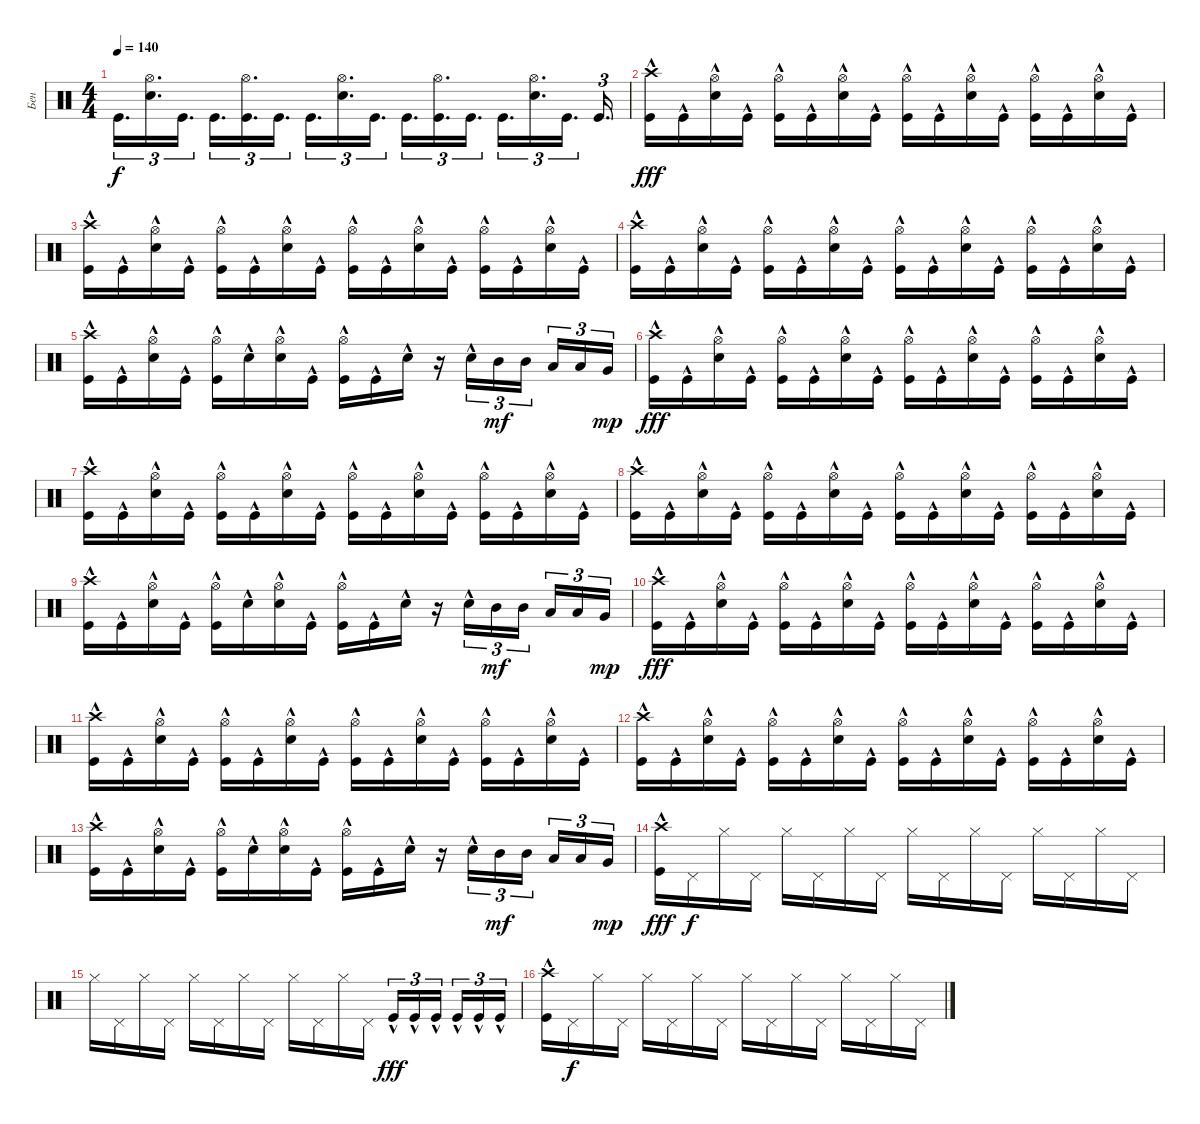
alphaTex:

\track ("Бен" "Бен") {instrument percussion}
\staff {score}
\articulation defaults
\ts (4 4)
\tempo 140
\clef neutral
\ks c "Kick (hit)".16{d tu (3 2) dy f}
("Snare (hit) 2" "Hi-Hat (open)").16{d tu (3 2)} "Kick (hit)".16{d tu (3 2)} "Kick (hit)".16{d tu (3 2)} ("Kick (hit)" "Hi-Hat (open)").16{d tu (3 2)} "Kick (hit)".16{d tu (3 2)} "Kick (hit)".16{d tu (3 2)} ("Snare (hit) 2" "Hi-Hat (open)").16{d tu (3 2)} "Kick (hit)".16{d tu (3 2)} "Kick (hit)".16{d tu (3 2)} ("Kick (hit)" "Hi-Hat (open)").16{d tu (3 2)} "Kick (hit)".16{d tu (3 2)} "Kick (hit)".16{d tu (3 2)} ("Snare (hit) 2" "Hi-Hat (open)").16{d tu (3 2)} "Kick (hit)".16{d tu (3 2)} "Kick (hit)".16{d tu (3 2)} |
("Kick (hit)"{hac} "Crash high (hit)"{hac}).16{dy fff} "Kick (hit)"{hac}.16 ("Snare (hit) 2"{hac} "Hi-Hat (open)").16 "Kick (hit)"{hac}.16 ("Kick (hit)"{hac} "Hi-Hat (open)").16 "Kick (hit)"{hac}.16 ("Snare (hit) 2"{hac} "Hi-Hat (open)").16 "Kick (hit)"{hac}.16 ("Kick (hit)"{hac} "Hi-Hat (open)").16 "Kick (hit)"{hac}.16 ("Snare (hit) 2"{hac} "Hi-Hat (open)").16 "Kick (hit)"{hac}.16 ("Kick (hit)"{hac} "Hi-Hat (open)").16 "Kick (hit)"{hac}.16 ("Snare (hit) 2"{hac} "Hi-Hat (open)").16 "Kick (hit)"{hac}.16 |
("Kick (hit)"{hac} "Crash high (hit)"{hac}).16 "Kick (hit)"{hac}.16 ("Snare (hit) 2"{hac} "Hi-Hat (open)").16 "Kick (hit)"{hac}.16 ("Kick (hit)"{hac} "Hi-Hat (open)").16 "Kick (hit)"{hac}.16 ("Snare (hit) 2"{hac} "Hi-Hat (open)").16 "Kick (hit)"{hac}.16 ("Kick (hit)"{hac} "Hi-Hat (open)").16 "Kick (hit)"{hac}.16 ("Snare (hit) 2"{hac} "Hi-Hat (open)").16 "Kick (hit)"{hac}.16 ("Kick (hit)"{hac} "Hi-Hat (open)").16 "Kick (hit)"{hac}.16 ("Snare (hit) 2"{hac} "Hi-Hat (open)").16 "Kick (hit)"{hac}.16 |
("Kick (hit)"{hac} "Crash high (hit)"{hac}).16 "Kick (hit)"{hac}.16 ("Snare (hit) 2"{hac} "Hi-Hat (open)").16 "Kick (hit)"{hac}.16 ("Kick (hit)"{hac} "Hi-Hat (open)").16 "Kick (hit)"{hac}.16 ("Snare (hit) 2"{hac} "Hi-Hat (open)").16 "Kick (hit)"{hac}.16 ("Kick (hit)"{hac} "Hi-Hat (open)").16 "Kick (hit)"{hac}.16 ("Snare (hit) 2"{hac} "Hi-Hat (open)").16 "Kick (hit)"{hac}.16 ("Kick (hit)"{hac} "Hi-Hat (open)").16 "Kick (hit)"{hac}.16 ("Snare (hit) 2"{hac} "Hi-Hat (open)").16 "Kick (hit)"{hac}.16 |
("Kick (hit)"{hac} "Crash high (hit)"{hac}).16 "Kick (hit)"{hac}.16 ("Snare (hit) 2"{hac} "Hi-Hat (open)").16 "Kick (hit)"{hac}.16 ("Kick (hit)"{hac} "Hi-Hat (open)").16 "Snare (hit)"{hac}.16 ("Snare (hit) 2"{hac} "Hi-Hat (open)").16 "Kick (hit)"{hac}.16 ("Kick (hit)"{hac} "Hi-Hat (open)").16 "Kick (hit)"{hac}.16 "Snare (hit) 2"{hac}.16 r.16 "Snare (hit) 2"{hac}.16{tu (3 2)} "Mid Tom (hit)".16{tu (3 2) dy mf} "Mid Tom (hit)".16{tu (3 2) beam splitsecondary} "Low Tom (hit)".16{tu (3 2)} "Low Tom (hit)".16{tu (3 2)} "Very Low Tom (hit)".16{tu (3 2) dy mp} |
("Kick (hit)"{hac} "Crash high (hit)"{hac}).16{dy fff} "Kick (hit)"{hac}.16 ("Snare (hit) 2"{hac} "Hi-Hat (open)").16 "Kick (hit)"{hac}.16 ("Kick (hit)"{hac} "Hi-Hat (open)").16 "Kick (hit)"{hac}.16 ("Snare (hit) 2"{hac} "Hi-Hat (open)").16 "Kick (hit)"{hac}.16 ("Kick (hit)"{hac} "Hi-Hat (open)").16 "Kick (hit)"{hac}.16 ("Snare (hit) 2"{hac} "Hi-Hat (open)").16 "Kick (hit)"{hac}.16 ("Kick (hit)"{hac} "Hi-Hat (open)").16 "Kick (hit)"{hac}.16 ("Snare (hit) 2"{hac} "Hi-Hat (open)").16 "Kick (hit)"{hac}.16 |
("Kick (hit)"{hac} "Crash high (hit)"{hac}).16 "Kick (hit)"{hac}.16 ("Snare (hit) 2"{hac} "Hi-Hat (open)").16 "Kick (hit)"{hac}.16 ("Kick (hit)"{hac} "Hi-Hat (open)").16 "Kick (hit)"{hac}.16 ("Snare (hit) 2"{hac} "Hi-Hat (open)").16 "Kick (hit)"{hac}.16 ("Kick (hit)"{hac} "Hi-Hat (open)").16 "Kick (hit)"{hac}.16 ("Snare (hit) 2"{hac} "Hi-Hat (open)").16 "Kick (hit)"{hac}.16 ("Kick (hit)"{hac} "Hi-Hat (open)").16 "Kick (hit)"{hac}.16 ("Snare (hit) 2"{hac} "Hi-Hat (open)").16 "Kick (hit)"{hac}.16 |
("Kick (hit)"{hac} "Crash high (hit)"{hac}).16 "Kick (hit)"{hac}.16 ("Snare (hit) 2"{hac} "Hi-Hat (open)").16 "Kick (hit)"{hac}.16 ("Kick (hit)"{hac} "Hi-Hat (open)").16 "Kick (hit)"{hac}.16 ("Snare (hit) 2"{hac} "Hi-Hat (open)").16 "Kick (hit)"{hac}.16 ("Kick (hit)"{hac} "Hi-Hat (open)").16 "Kick (hit)"{hac}.16 ("Snare (hit) 2"{hac} "Hi-Hat (open)").16 "Kick (hit)"{hac}.16 ("Kick (hit)"{hac} "Hi-Hat (open)").16 "Kick (hit)"{hac}.16 ("Snare (hit) 2"{hac} "Hi-Hat (open)").16 "Kick (hit)"{hac}.16 |
("Kick (hit)"{hac} "Crash high (hit)"{hac}).16 "Kick (hit)"{hac}.16 ("Snare (hit) 2"{hac} "Hi-Hat (open)").16 "Kick (hit)"{hac}.16 ("Kick (hit)"{hac} "Hi-Hat (open)").16 "Snare (hit)"{hac}.16 ("Snare (hit) 2"{hac} "Hi-Hat (open)").16 "Kick (hit)"{hac}.16 ("Kick (hit)"{hac} "Hi-Hat (open)").16 "Kick (hit)"{hac}.16 "Snare (hit) 2"{hac}.16 r.16 "Snare (hit) 2"{hac}.16{tu (3 2)} "Mid Tom (hit)".16{tu (3 2) dy mf} "Mid Tom (hit)".16{tu (3 2) beam splitsecondary} "Low Tom (hit)".16{tu (3 2)} "Low Tom (hit)".16{tu (3 2)} "Very Low Tom (hit)".16{tu (3 2) dy mp} |
("Kick (hit)"{hac} "Crash high (hit)"{hac}).16{dy fff} "Kick (hit)"{hac}.16 ("Snare (hit) 2"{hac} "Hi-Hat (open)").16 "Kick (hit)"{hac}.16 ("Kick (hit)"{hac} "Hi-Hat (open)").16 "Kick (hit)"{hac}.16 ("Snare (hit) 2"{hac} "Hi-Hat (open)").16 "Kick (hit)"{hac}.16 ("Kick (hit)"{hac} "Hi-Hat (open)").16 "Kick (hit)"{hac}.16 ("Snare (hit) 2"{hac} "Hi-Hat (open)").16 "Kick (hit)"{hac}.16 ("Kick (hit)"{hac} "Hi-Hat (open)").16 "Kick (hit)"{hac}.16 ("Snare (hit) 2"{hac} "Hi-Hat (open)").16 "Kick (hit)"{hac}.16 |
("Kick (hit)"{hac} "Crash high (hit)"{hac}).16 "Kick (hit)"{hac}.16 ("Snare (hit) 2"{hac} "Hi-Hat (open)").16 "Kick (hit)"{hac}.16 ("Kick (hit)"{hac} "Hi-Hat (open)").16 "Kick (hit)"{hac}.16 ("Snare (hit) 2"{hac} "Hi-Hat (open)").16 "Kick (hit)"{hac}.16 ("Kick (hit)"{hac} "Hi-Hat (open)").16 "Kick (hit)"{hac}.16 ("Snare (hit) 2"{hac} "Hi-Hat (open)").16 "Kick (hit)"{hac}.16 ("Kick (hit)"{hac} "Hi-Hat (open)").16 "Kick (hit)"{hac}.16 ("Snare (hit) 2"{hac} "Hi-Hat (open)").16 "Kick (hit)"{hac}.16 |
("Kick (hit)"{hac} "Crash high (hit)"{hac}).16 "Kick (hit)"{hac}.16 ("Snare (hit) 2"{hac} "Hi-Hat (open)").16 "Kick (hit)"{hac}.16 ("Kick (hit)"{hac} "Hi-Hat (open)").16 "Kick (hit)"{hac}.16 ("Snare (hit) 2"{hac} "Hi-Hat (open)").16 "Kick (hit)"{hac}.16 ("Kick (hit)"{hac} "Hi-Hat (open)").16 "Kick (hit)"{hac}.16 ("Snare (hit) 2"{hac} "Hi-Hat (open)").16 "Kick (hit)"{hac}.16 ("Kick (hit)"{hac} "Hi-Hat (open)").16 "Kick (hit)"{hac}.16 ("Snare (hit) 2"{hac} "Hi-Hat (open)").16 "Kick (hit)"{hac}.16 |
("Kick (hit)"{hac} "Crash high (hit)"{hac}).16 "Kick (hit)"{hac}.16 ("Snare (hit) 2"{hac} "Hi-Hat (open)").16 "Kick (hit)"{hac}.16 ("Kick (hit)"{hac} "Hi-Hat (open)").16 "Snare (hit)"{hac}.16 ("Snare (hit) 2"{hac} "Hi-Hat (open)").16 "Kick (hit)"{hac}.16 ("Kick (hit)"{hac} "Hi-Hat (open)").16 "Kick (hit)"{hac}.16 "Snare (hit) 2"{hac}.16 r.16 "Snare (hit) 2"{hac}.16{tu (3 2)} "Mid Tom (hit)".16{tu (3 2) dy mf} "Mid Tom (hit)".16{tu (3 2) beam splitsecondary} "Low Tom (hit)".16{tu (3 2)} "Low Tom (hit)".16{tu (3 2)} "Very Low Tom (hit)".16{tu (3 2) dy mp} |
("Crash high (hit)"{hac} "Kick (hit)"{hac}).16{dy fff} "Pedal Hi-Hat (hit)".16{dy f} "Hi-Hat (closed)".16 "Pedal Hi-Hat (hit)".16 "Hi-Hat (closed)".16 "Pedal Hi-Hat (hit)".16 "Hi-Hat (closed)".16 "Pedal Hi-Hat (hit)".16 "Hi-Hat (closed)".16 "Pedal Hi-Hat (hit)".16 "Hi-Hat (closed)".16 "Pedal Hi-Hat (hit)".16 "Hi-Hat (closed)".16 "Pedal Hi-Hat (hit)".16 "Hi-Hat (closed)".16 "Pedal Hi-Hat (hit)".16 |
"Hi-Hat (closed)".16 "Pedal Hi-Hat (hit)".16 "Hi-Hat (closed)".16 "Pedal Hi-Hat (hit)".16 "Hi-Hat (closed)".16 "Pedal Hi-Hat (hit)".16 "Hi-Hat (closed)".16 "Pedal Hi-Hat (hit)".16 "Hi-Hat (closed)".16 "Pedal Hi-Hat (hit)".16 "Hi-Hat (closed)".16 "Pedal Hi-Hat (hit)".16 "Kick (hit)"{hac}.16{tu (3 2) dy fff} "Kick (hit)"{hac}.16{tu (3 2)} "Kick (hit)"{hac}.16{tu (3 2) beam splitsecondary} "Kick (hit)"{hac}.16{tu (3 2)} "Kick (hit)"{hac}.16{tu (3 2)} "Kick (hit)"{hac}.16{tu (3 2)} |
("Crash high (hit)"{hac} "Kick (hit)"{hac}).16 "Pedal Hi-Hat (hit)".16{dy f} "Hi-Hat (closed)".16 "Pedal Hi-Hat (hit)".16 "Hi-Hat (closed)".16 "Pedal Hi-Hat (hit)".16 "Hi-Hat (closed)".16 "Pedal Hi-Hat (hit)".16 "Hi-Hat (closed)".16 "Pedal Hi-Hat (hit)".16 "Hi-Hat (closed)".16 "Pedal Hi-Hat (hit)".16 "Hi-Hat (closed)".16 "Pedal Hi-Hat (hit)".16 "Hi-Hat (closed)".16 "Pedal Hi-Hat (hit)".16
